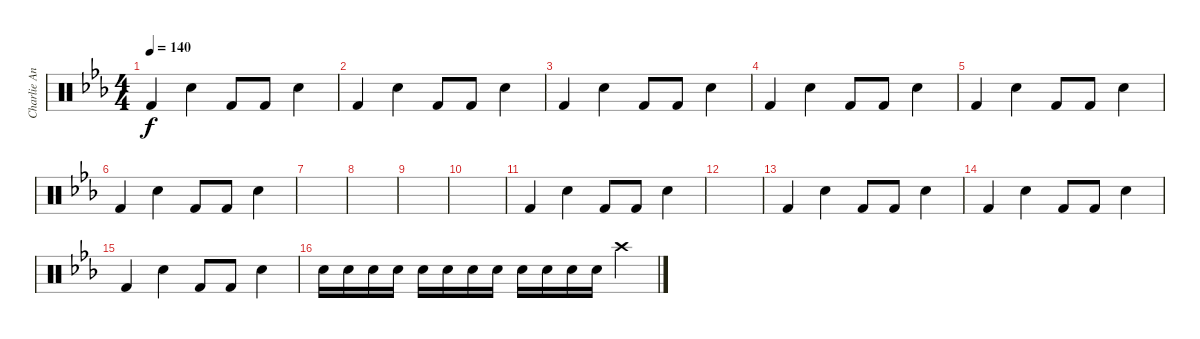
\track ("Charlie Angel" "Charlie An") {instrument percussion}
\staff {score}
\articulation defaults
\ts (4 4)
\tempo 140
\clef neutral
\ks eb "Kick (hit) 2".4{dy f} "Electric Snare (hit)".4 "Kick (hit) 2".8 "Kick (hit) 2".8 "Electric Snare (hit)".4
|
"Kick (hit) 2".4 "Electric Snare (hit)".4 "Kick (hit) 2".8 "Kick (hit) 2".8 "Electric Snare (hit)".4 |
"Kick (hit) 2".4 "Electric Snare (hit)".4 "Kick (hit) 2".8 "Kick (hit) 2".8 "Electric Snare (hit)".4 |
"Kick (hit) 2".4 "Electric Snare (hit)".4 "Kick (hit) 2".8 "Kick (hit) 2".8 "Electric Snare (hit)".4 |
"Kick (hit) 2".4 "Electric Snare (hit)".4 "Kick (hit) 2".8 "Kick (hit) 2".8 "Electric Snare (hit)".4 |
"Kick (hit) 2".4 "Electric Snare (hit)".4 "Kick (hit) 2".8 "Kick (hit) 2".8 "Electric Snare (hit)".4 |
|
|
|
|
"Kick (hit) 2".4 "Electric Snare (hit)".4 "Kick (hit) 2".8 "Kick (hit) 2".8 "Electric Snare (hit)".4 |
|
"Kick (hit) 2".4 "Electric Snare (hit)".4 "Kick (hit) 2".8 "Kick (hit) 2".8 "Electric Snare (hit)".4 |
"Kick (hit) 2".4 "Electric Snare (hit)".4 "Kick (hit) 2".8 "Kick (hit) 2".8 "Electric Snare (hit)".4 |
"Kick (hit) 2".4 "Electric Snare (hit)".4 "Kick (hit) 2".8 "Kick (hit) 2".8 "Electric Snare (hit)".4 |
"Electric Snare (hit)".16 "Electric Snare (hit)".16 "Electric Snare (hit)".16 "Electric Snare (hit)".16 "Electric Snare (hit)".16 "Electric Snare (hit)".16 "Electric Snare (hit)".16 "Electric Snare (hit)".16 "Electric Snare (hit)".16 "Electric Snare (hit)".16 "Electric Snare (hit)".16 "Electric Snare (hit)".16 "Crash high (hit)".4
